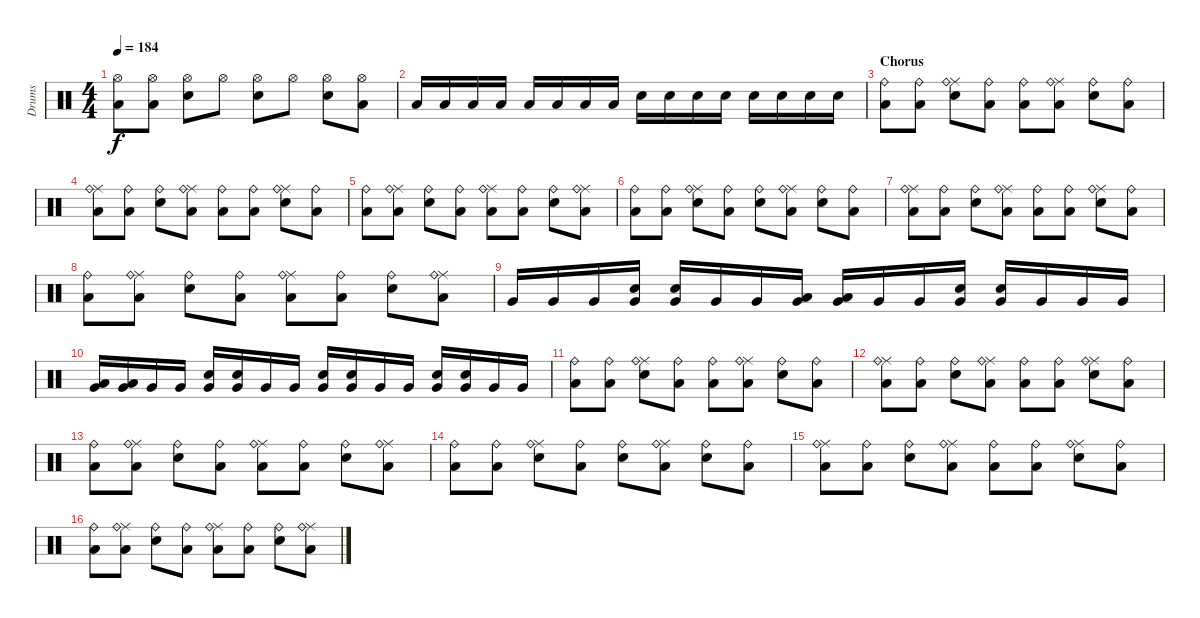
\track ("Drums" "Drums") {instrument percussion}
\staff {score}
\articulation defaults
\ts (4 4)
\tempo 184
\clef neutral
\ks c
("Hi-Hat (open)" "Low Tom (hit)").8{dy f} ("Hi-Hat (open)" "Low Tom (hit)").8 ("Hi-Hat (open)" "Electric Snare (hit)").8 "Hi-Hat (open)".8 ("Hi-Hat (open)" "Electric Snare (hit)").8 "Hi-Hat (open)".8 ("Hi-Hat (open)" "Electric Snare (hit)").8 ("Hi-Hat (open)" "Low Tom (hit)").8 |
"Low Tom (hit)".16 "Low Tom (hit)".16 "Low Tom (hit)".16 "Low Tom (hit)".16 "Low Tom (hit)".16 "Low Tom (hit)".16 "Low Tom (hit)".16 "Low Tom (hit)".16 "Electric Snare (hit)".16 "Electric Snare (hit)".16 "Electric Snare (hit)".16 "Electric Snare (hit)".16 "Electric Snare (hit)".16 "Electric Snare (hit)".16 "Electric Snare (hit)".16 "Electric Snare (hit)".16 |
\section ("" "Chorus")
("Ride (bell)" "Low Tom (hit)").8 ("Ride (bell)" "Low Tom (hit)").8 ("Ride (middle)" "Ride (bell)" "Electric Snare (hit)").8 ("Ride (bell)" "Low Tom (hit)").8 ("Ride (bell)" "Low Tom (hit)").8 ("Ride (middle)" "Ride (bell)" "Low Tom (hit)").8 ("Ride (bell)" "Electric Snare (hit)").8 ("Ride (bell)" "Low Tom (hit)").8 |
("Ride (middle)" "Ride (bell)" "Low Tom (hit)").8 ("Ride (bell)" "Low Tom (hit)").8 ("Ride (bell)" "Electric Snare (hit)").8 ("Ride (middle)" "Ride (bell)" "Low Tom (hit)").8 ("Ride (bell)" "Low Tom (hit)").8 ("Ride (bell)" "Low Tom (hit)").8 ("Ride (middle)" "Ride (bell)" "Electric Snare (hit)").8 ("Ride (bell)" "Low Tom (hit)").8 |
("Ride (bell)" "Low Tom (hit)").8 ("Ride (middle)" "Ride (bell)" "Low Tom (hit)").8 ("Ride (bell)" "Electric Snare (hit)").8 ("Ride (bell)" "Low Tom (hit)").8 ("Ride (middle)" "Ride (bell)" "Low Tom (hit)").8 ("Ride (bell)" "Low Tom (hit)").8 ("Ride (bell)" "Electric Snare (hit)").8 ("Ride (middle)" "Ride (bell)" "Low Tom (hit)").8 |
("Ride (bell)" "Low Tom (hit)").8 ("Ride (bell)" "Low Tom (hit)").8 ("Ride (middle)" "Ride (bell)" "Electric Snare (hit)").8 ("Ride (bell)" "Low Tom (hit)").8 ("Ride (bell)" "Electric Snare (hit)").8 ("Ride (middle)" "Ride (bell)" "Low Tom (hit)").8 ("Ride (bell)" "Electric Snare (hit)").8 ("Ride (bell)" "Low Tom (hit)").8 |
("Ride (middle)" "Ride (bell)" "Low Tom (hit)").8 ("Ride (bell)" "Low Tom (hit)").8 ("Ride (bell)" "Electric Snare (hit)").8 ("Ride (middle)" "Ride (bell)" "Low Tom (hit)").8 ("Ride (bell)" "Low Tom (hit)").8 ("Ride (bell)" "Low Tom (hit)").8 ("Ride (middle)" "Ride (bell)" "Electric Snare (hit)").8 ("Ride (bell)" "Low Tom (hit)").8 |
("Ride (bell)" "Low Tom (hit)").8 ("Ride (middle)" "Ride (bell)" "Low Tom (hit)").8 ("Ride (bell)" "Electric Snare (hit)").8 ("Ride (bell)" "Low Tom (hit)").8 ("Ride (middle)" "Ride (bell)" "Low Tom (hit)").8 ("Ride (bell)" "Low Tom (hit)").8 ("Ride (bell)" "Electric Snare (hit)").8 ("Ride (middle)" "Ride (bell)" "Low Tom (hit)").8 |
"Very Low Tom (hit)".16 "Very Low Tom (hit)".16 "Very Low Tom (hit)".16 ("Electric Snare (hit)" "Very Low Tom (hit)").16 ("Electric Snare (hit)" "Very Low Tom (hit)").16 "Very Low Tom (hit)".16 "Very Low Tom (hit)".16 ("Low Tom (hit)" "Very Low Tom (hit)").16 ("Low Tom (hit)" "Very Low Tom (hit)").16 "Very Low Tom (hit)".16 "Very Low Tom (hit)".16 ("Electric Snare (hit)" "Very Low Tom (hit)").16 ("Electric Snare (hit)" "Very Low Tom (hit)").16 "Very Low Tom (hit)".16 "Very Low Tom (hit)".16 "Very Low Tom (hit)".16 |
("Low Tom (hit)" "Very Low Tom (hit)").16 ("Low Tom (hit)" "Very Low Tom (hit)").16 "Very Low Tom (hit)".16 "Very Low Tom (hit)".16 ("Electric Snare (hit)" "Very Low Tom (hit)").16 ("Electric Snare (hit)" "Very Low Tom (hit)").16 "Very Low Tom (hit)".16 "Very Low Tom (hit)".16 ("Electric Snare (hit)" "Very Low Tom (hit)").16 ("Electric Snare (hit)" "Very Low Tom (hit)").16 "Very Low Tom (hit)".16 "Very Low Tom (hit)".16 ("Electric Snare (hit)" "Very Low Tom (hit)").16 ("Electric Snare (hit)" "Very Low Tom (hit)").16 "Very Low Tom (hit)".16 "Very Low Tom (hit)".16 |
("Ride (bell)" "Low Tom (hit)").8 ("Ride (bell)" "Low Tom (hit)").8 ("Ride (middle)" "Ride (bell)" "Electric Snare (hit)").8 ("Ride (bell)" "Low Tom (hit)").8 ("Ride (bell)" "Low Tom (hit)").8 ("Ride (middle)" "Ride (bell)" "Low Tom (hit)").8 ("Ride (bell)" "Electric Snare (hit)").8 ("Ride (bell)" "Low Tom (hit)").8 |
("Ride (middle)" "Ride (bell)" "Low Tom (hit)").8 ("Ride (bell)" "Low Tom (hit)").8 ("Ride (bell)" "Electric Snare (hit)").8 ("Ride (middle)" "Ride (bell)" "Low Tom (hit)").8 ("Ride (bell)" "Low Tom (hit)").8 ("Ride (bell)" "Low Tom (hit)").8 ("Ride (middle)" "Ride (bell)" "Electric Snare (hit)").8 ("Ride (bell)" "Low Tom (hit)").8 |
("Ride (bell)" "Low Tom (hit)").8 ("Ride (middle)" "Ride (bell)" "Low Tom (hit)").8 ("Ride (bell)" "Electric Snare (hit)").8 ("Ride (bell)" "Low Tom (hit)").8 ("Ride (middle)" "Ride (bell)" "Low Tom (hit)").8 ("Ride (bell)" "Low Tom (hit)").8 ("Ride (bell)" "Electric Snare (hit)").8 ("Ride (middle)" "Ride (bell)" "Low Tom (hit)").8 |
("Ride (bell)" "Low Tom (hit)").8 ("Ride (bell)" "Low Tom (hit)").8 ("Ride (middle)" "Ride (bell)" "Electric Snare (hit)").8 ("Ride (bell)" "Low Tom (hit)").8 ("Ride (bell)" "Electric Snare (hit)").8 ("Ride (middle)" "Ride (bell)" "Low Tom (hit)").8 ("Ride (bell)" "Electric Snare (hit)").8 ("Ride (bell)" "Low Tom (hit)").8 |
("Ride (middle)" "Ride (bell)" "Low Tom (hit)").8 ("Ride (bell)" "Low Tom (hit)").8 ("Ride (bell)" "Electric Snare (hit)").8 ("Ride (middle)" "Ride (bell)" "Low Tom (hit)").8 ("Ride (bell)" "Low Tom (hit)").8 ("Ride (bell)" "Low Tom (hit)").8 ("Ride (middle)" "Ride (bell)" "Electric Snare (hit)").8 ("Ride (bell)" "Low Tom (hit)").8 |
("Ride (bell)" "Low Tom (hit)").8 ("Ride (middle)" "Ride (bell)" "Low Tom (hit)").8 ("Ride (bell)" "Electric Snare (hit)").8 ("Ride (bell)" "Low Tom (hit)").8 ("Ride (middle)" "Ride (bell)" "Low Tom (hit)").8 ("Ride (bell)" "Low Tom (hit)").8 ("Ride (bell)" "Electric Snare (hit)").8 ("Ride (middle)" "Ride (bell)" "Low Tom (hit)").8
